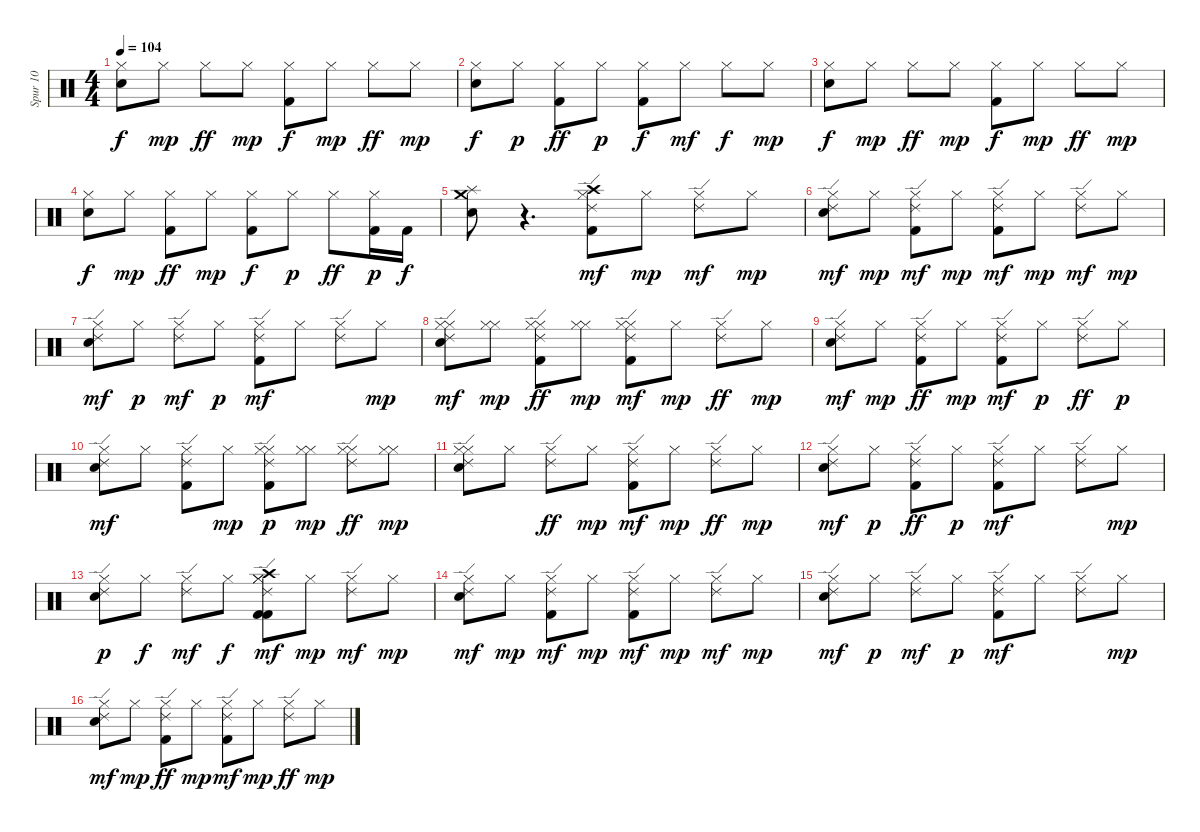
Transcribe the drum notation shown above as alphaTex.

\track ("Spur 10" "Spur 10") {instrument percussion}
\staff {score}
\articulation defaults
\ts (4 4)
\tempo 104
\clef neutral
\ks c
("Snare (hit) 2" "Hi-Hat (closed)").8{dy f} "Hi-Hat (closed)".8{dy mp} "Hi-Hat (closed)".8{dy ff} "Hi-Hat (closed)".8{dy mp} ("Kick (hit) 2" "Hi-Hat (closed)").8{dy f} "Hi-Hat (closed)".8{dy mp} "Hi-Hat (closed)".8{dy ff} "Hi-Hat (closed)".8{dy mp} |
("Snare (hit) 2" "Hi-Hat (closed)").8{dy f} "Hi-Hat (closed)".8{dy p} ("Kick (hit) 2" "Hi-Hat (closed)").8{dy ff} "Hi-Hat (closed)".8{dy p} ("Kick (hit) 2" "Hi-Hat (closed)").8{dy f} "Hi-Hat (closed)".8{dy mf} "Hi-Hat (closed)".8{dy f} "Hi-Hat (closed)".8{dy mp} |
("Snare (hit) 2" "Hi-Hat (closed)").8{dy f} "Hi-Hat (closed)".8{dy mp} "Hi-Hat (closed)".8{dy ff} "Hi-Hat (closed)".8{dy mp} ("Kick (hit) 2" "Hi-Hat (closed)").8{dy f} "Hi-Hat (closed)".8{dy mp} "Hi-Hat (closed)".8{dy ff} "Hi-Hat (closed)".8{dy mp} |
("Snare (hit) 2" "Hi-Hat (closed)").8{dy f} "Hi-Hat (closed)".8{dy mp} ("Kick (hit) 2" "Hi-Hat (closed)").8{dy ff} "Hi-Hat (closed)".8{dy mp} ("Kick (hit) 2" "Hi-Hat (closed)").8{dy f} "Hi-Hat (closed)".8{dy p} "Hi-Hat (closed)".8{dy ff} ("Kick (hit) 2" "Hi-Hat (closed)").16{dy p} "Kick (hit) 2".16{dy f} |
("Snare (hit) 2" "Splash (hit)" "Crash medium (hit)").8 r.4{d} ("Kick (hit) 2" "Ride (edge) 2" "Crash high (hit)" "Hi-Hat (closed)").8{dy mf} "Hi-Hat (closed)".8{dy mp} ("Hi-Hat (closed)" "Ride (edge) 2").8{dy mf} "Hi-Hat (closed)".8{dy mp} |
("Snare (hit) 2" "Hi-Hat (closed)" "Ride (edge) 2").8{dy mf} "Hi-Hat (closed)".8{dy mp} ("Kick (hit) 2" "Hi-Hat (closed)" "Ride (edge) 2").8{dy mf} "Hi-Hat (closed)".8{dy mp} ("Kick (hit) 2" "Hi-Hat (closed)" "Ride (edge) 2").8{dy mf} "Hi-Hat (closed)".8{dy mp} ("Hi-Hat (closed)" "Ride (edge) 2").8{dy mf} "Hi-Hat (closed)".8{dy mp} |
("Snare (hit) 2" "Hi-Hat (closed)" "Ride (edge) 2").8{dy mf} "Hi-Hat (closed)".8{dy p} ("Hi-Hat (closed)" "Ride (edge) 2").8{dy mf} "Hi-Hat (closed)".8{dy p} ("Kick (hit) 2" "Hi-Hat (closed)" "Ride (edge) 2").8{dy mf} "Hi-Hat (closed)".8 ("Hi-Hat (closed)" "Ride (edge) 2").8 "Hi-Hat (closed)".8{dy mp} |
("Snare (hit) 2" "Hi-Hat (closed)" "Ride (edge) 2" "Hi-Hat (closed)").8{dy mf} ("Hi-Hat (closed)" "Hi-Hat (closed)").8{dy mp} ("Kick (hit) 2" "Hi-Hat (closed)" "Ride (edge) 2" "Hi-Hat (closed)").8{dy ff} ("Hi-Hat (closed)" "Hi-Hat (closed)").8{dy mp} ("Kick (hit) 2" "Hi-Hat (closed)" "Ride (edge) 2" "Hi-Hat (closed)").8{dy mf} "Hi-Hat (closed)".8{dy mp} ("Ride (edge) 2" "Hi-Hat (closed)").8{dy ff} "Hi-Hat (closed)".8{dy mp} |
("Snare (hit) 2" "Ride (edge) 2" "Hi-Hat (closed)").8{dy mf} "Hi-Hat (closed)".8{dy mp} ("Kick (hit) 2" "Ride (edge) 2" "Hi-Hat (closed)").8{dy ff} "Hi-Hat (closed)".8{dy mp} ("Kick (hit) 2" "Ride (edge) 2" "Hi-Hat (closed)").8{dy mf} "Hi-Hat (closed)".8{dy p} ("Ride (edge) 2" "Hi-Hat (closed)").8{dy ff} "Hi-Hat (closed)".8{dy p} |
("Snare (hit) 2" "Ride (edge) 2" "Hi-Hat (closed)").8{dy mf} "Hi-Hat (closed)".8 ("Kick (hit) 2" "Ride (edge) 2" "Hi-Hat (closed)").8 "Hi-Hat (closed)".8{dy mp} ("Kick (hit) 2" "Ride (edge) 2" "Hi-Hat (closed)" "Hi-Hat (closed)").8{dy p} ("Hi-Hat (closed)" "Hi-Hat (closed)").8{dy mp} ("Ride (edge) 2" "Hi-Hat (closed)" "Hi-Hat (closed)").8{dy ff} ("Hi-Hat (closed)" "Hi-Hat (closed)").8{dy mp} |
("Snare (hit) 2" "Ride (edge) 2" "Hi-Hat (closed)" "Hi-Hat (closed)").8 "Hi-Hat (closed)".8 ("Ride (edge) 2" "Hi-Hat (closed)").8{dy ff} "Hi-Hat (closed)".8{dy mp} ("Kick (hit) 2" "Ride (edge) 2" "Hi-Hat (closed)").8{dy mf} "Hi-Hat (closed)".8{dy mp} ("Ride (edge) 2" "Hi-Hat (closed)").8{dy ff} "Hi-Hat (closed)".8{dy mp} |
("Snare (hit) 2" "Ride (edge) 2" "Hi-Hat (closed)").8{dy mf} "Hi-Hat (closed)".8{dy p} ("Kick (hit) 2" "Ride (edge) 2" "Hi-Hat (closed)").8{dy ff} "Hi-Hat (closed)".8{dy p} ("Kick (hit) 2" "Ride (edge) 2" "Hi-Hat (closed)").8{dy mf} "Hi-Hat (closed)".8 ("Ride (edge) 2" "Hi-Hat (closed)").8 "Hi-Hat (closed)".8{dy mp} |
("Snare (hit) 2" "Ride (edge) 2" "Hi-Hat (closed)").8{dy p} "Hi-Hat (closed)".8{dy f} ("Ride (edge) 2" "Hi-Hat (closed)").8{dy mf} "Hi-Hat (closed)".8{dy f} ("Kick (hit) 2" "Hi-Hat (closed)" "Kick (hit) 2" "Ride (edge) 2" "Crash high (hit)" "Hi-Hat (closed)").8{dy mf} "Hi-Hat (closed)".8{dy mp} ("Hi-Hat (closed)" "Ride (edge) 2").8{dy mf} "Hi-Hat (closed)".8{dy mp} |
("Snare (hit) 2" "Hi-Hat (closed)" "Ride (edge) 2").8{dy mf} "Hi-Hat (closed)".8{dy mp} ("Kick (hit) 2" "Hi-Hat (closed)" "Ride (edge) 2").8{dy mf} "Hi-Hat (closed)".8{dy mp} ("Kick (hit) 2" "Hi-Hat (closed)" "Ride (edge) 2").8{dy mf} "Hi-Hat (closed)".8{dy mp} ("Hi-Hat (closed)" "Ride (edge) 2").8{dy mf} "Hi-Hat (closed)".8{dy mp} |
("Snare (hit) 2" "Hi-Hat (closed)" "Ride (edge) 2").8{dy mf} "Hi-Hat (closed)".8{dy p} ("Hi-Hat (closed)" "Ride (edge) 2").8{dy mf} "Hi-Hat (closed)".8{dy p} ("Kick (hit) 2" "Hi-Hat (closed)" "Ride (edge) 2").8{dy mf} "Hi-Hat (closed)".8 ("Hi-Hat (closed)" "Ride (edge) 2").8 "Hi-Hat (closed)".8{dy mp} |
("Snare (hit) 2" "Ride (edge) 2" "Hi-Hat (closed)").8{dy mf} "Hi-Hat (closed)".8{dy mp} ("Kick (hit) 2" "Ride (edge) 2" "Hi-Hat (closed)").8{dy ff} "Hi-Hat (closed)".8{dy mp} ("Kick (hit) 2" "Ride (edge) 2" "Hi-Hat (closed)").8{dy mf} "Hi-Hat (closed)".8{dy mp} ("Ride (edge) 2" "Hi-Hat (closed)").8{dy ff} "Hi-Hat (closed)".8{dy mp}
